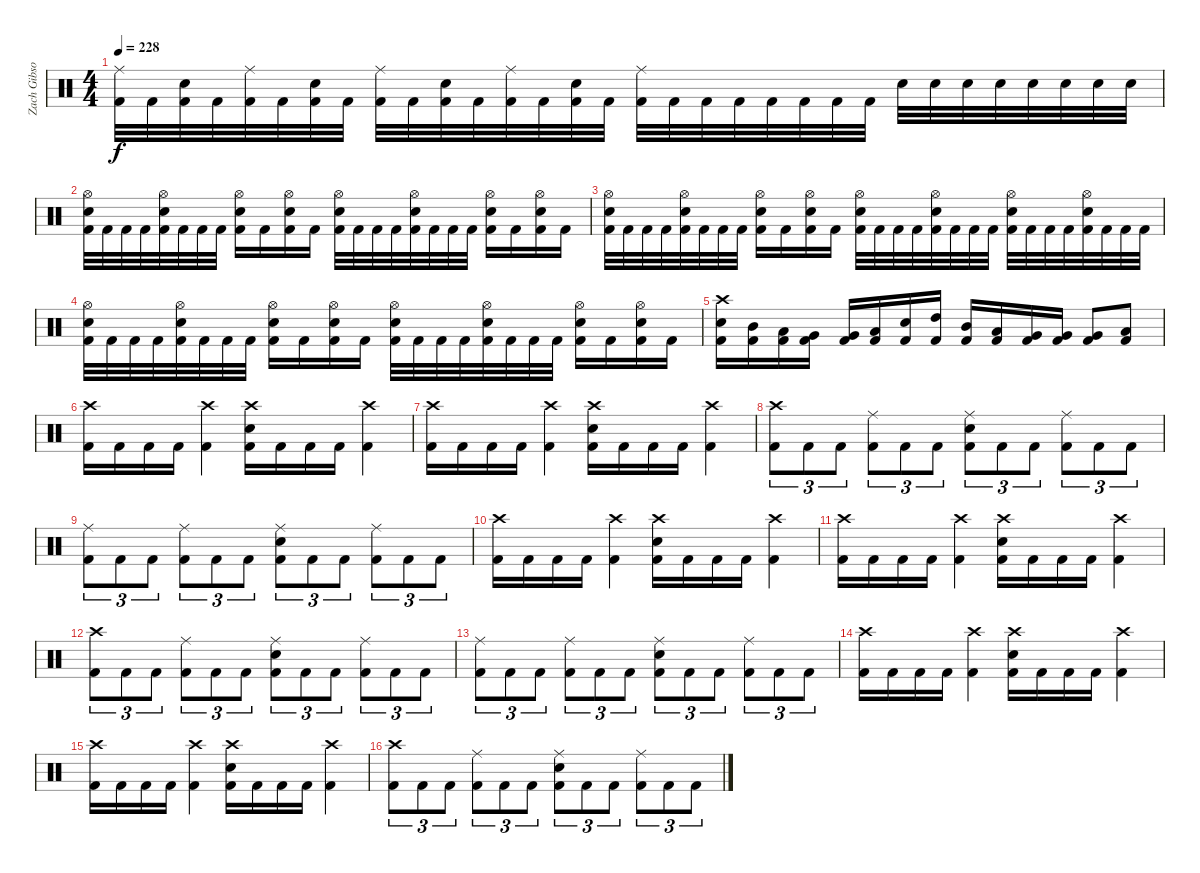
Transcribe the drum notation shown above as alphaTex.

\track ("Zach Gibson (Ex-Drums)" "Zach Gibso") {instrument percussion}
\staff {score}
\articulation defaults
\ts (4 4)
\tempo 228
\clef neutral
\ks c
("Ride (middle)" "Kick (hit) 2").32{dy f} "Kick (hit) 2".32 ("Snare (hit) 2" "Kick (hit) 2").32 "Kick (hit) 2".32 ("Ride (middle)" "Kick (hit) 2").32 "Kick (hit) 2".32 ("Snare (hit) 2" "Kick (hit) 2").32 "Kick (hit) 2".32 ("Ride (middle)" "Kick (hit) 2").32 "Kick (hit) 2".32 ("Snare (hit) 2" "Kick (hit) 2").32 "Kick (hit) 2".32 ("Ride (middle)" "Kick (hit) 2").32 "Kick (hit) 2".32 ("Snare (hit) 2" "Kick (hit) 2").32 "Kick (hit) 2".32 ("Ride (middle)" "Kick (hit) 2").32 "Kick (hit) 2".32 "Kick (hit) 2".32 "Kick (hit) 2".32 "Kick (hit) 2".32 "Kick (hit) 2".32 "Kick (hit) 2".32 "Kick (hit) 2".32 "Snare (hit) 2".32 "Snare (hit) 2".32 "Snare (hit) 2".32 "Snare (hit) 2".32 "Snare (hit) 2".32 "Snare (hit) 2".32 "Snare (hit) 2".32 "Snare (hit) 2".32 |
("Hi-Hat (open)" "Snare (hit) 2" "Kick (hit) 2").32 "Kick (hit) 2".32 "Kick (hit) 2".32 "Kick (hit) 2".32 ("Hi-Hat (open)" "Snare (hit) 2" "Kick (hit) 2").32 "Kick (hit) 2".32 "Kick (hit) 2".32 "Kick (hit) 2".32 ("Hi-Hat (open)" "Kick (hit) 2" "Snare (hit) 2").16 "Kick (hit) 2".16 ("Hi-Hat (open)" "Snare (hit) 2" "Kick (hit) 2").16 "Kick (hit) 2".16 ("Hi-Hat (open)" "Snare (hit) 2" "Kick (hit) 2").32 "Kick (hit) 2".32 "Kick (hit) 2".32 "Kick (hit) 2".32 ("Hi-Hat (open)" "Snare (hit) 2" "Kick (hit) 2").32 "Kick (hit) 2".32 "Kick (hit) 2".32 "Kick (hit) 2".32 ("Hi-Hat (open)" "Snare (hit) 2" "Kick (hit) 2").16 "Kick (hit) 2".16 ("Hi-Hat (open)" "Snare (hit) 2" "Kick (hit) 2").16 "Kick (hit) 2".16 |
("Hi-Hat (open)" "Snare (hit) 2" "Kick (hit) 2").32 "Kick (hit) 2".32 "Kick (hit) 2".32 "Kick (hit) 2".32 ("Hi-Hat (open)" "Snare (hit) 2" "Kick (hit) 2").32 "Kick (hit) 2".32 "Kick (hit) 2".32 "Kick (hit) 2".32 ("Hi-Hat (open)" "Kick (hit) 2" "Snare (hit) 2").16 "Kick (hit) 2".16 ("Hi-Hat (open)" "Snare (hit) 2" "Kick (hit) 2").16 "Kick (hit) 2".16 ("Hi-Hat (open)" "Snare (hit) 2" "Kick (hit) 2").32 "Kick (hit) 2".32 "Kick (hit) 2".32 "Kick (hit) 2".32 ("Hi-Hat (open)" "Snare (hit) 2" "Kick (hit) 2").32 "Kick (hit) 2".32 "Kick (hit) 2".32 "Kick (hit) 2".32 ("Hi-Hat (open)" "Snare (hit) 2" "Kick (hit) 2").32 "Kick (hit) 2".32 "Kick (hit) 2".32 "Kick (hit) 2".32 ("Hi-Hat (open)" "Snare (hit) 2" "Kick (hit) 2").32 "Kick (hit) 2".32 "Kick (hit) 2".32 "Kick (hit) 2".32 |
("Hi-Hat (open)" "Snare (hit) 2" "Kick (hit) 2").32 "Kick (hit) 2".32 "Kick (hit) 2".32 "Kick (hit) 2".32 ("Hi-Hat (open)" "Snare (hit) 2" "Kick (hit) 2").32 "Kick (hit) 2".32 "Kick (hit) 2".32 "Kick (hit) 2".32 ("Hi-Hat (open)" "Kick (hit) 2" "Snare (hit) 2").16 "Kick (hit) 2".16 ("Hi-Hat (open)" "Snare (hit) 2" "Kick (hit) 2").16 "Kick (hit) 2".16 ("Hi-Hat (open)" "Snare (hit) 2" "Kick (hit) 2").32 "Kick (hit) 2".32 "Kick (hit) 2".32 "Kick (hit) 2".32 ("Hi-Hat (open)" "Snare (hit) 2" "Kick (hit) 2").32 "Kick (hit) 2".32 "Kick (hit) 2".32 "Kick (hit) 2".32 ("Hi-Hat (open)" "Snare (hit) 2" "Kick (hit) 2").16 "Kick (hit) 2".16 ("Hi-Hat (open)" "Snare (hit) 2" "Kick (hit) 2").16 "Kick (hit) 2".16 |
("Crash high (hit)" "Snare (hit) 2" "Kick (hit) 2").16 ("Mid Tom (hit)" "Kick (hit) 2").16 ("Low Tom (hit)" "Kick (hit) 2").16 ("Very Low Tom (hit)" "Kick (hit) 2").16 ("Very Low Tom (hit)" "Kick (hit) 2").16 ("Low Floor Tom (hit)" "Kick (hit) 2").16 ("Snare (hit) 2" "Kick (hit) 2").16 ("High Tom (hit)" "Kick (hit) 2").16 ("Mid Tom (hit)" "Kick (hit) 2").16 ("Low Tom (hit)" "Kick (hit) 2").16 ("Very Low Tom (hit)" "Kick (hit) 2").16 ("Very Low Tom (hit)" "Kick (hit) 2").16 ("Very Low Tom (hit)" "Kick (hit) 2").8 ("Low Floor Tom (hit)" "Kick (hit) 2").8 |
("Crash high (hit)" "Kick (hit) 2").16 "Kick (hit) 2".16 "Kick (hit) 2".16 "Kick (hit) 2".16 ("Crash high (hit)" "Kick (hit) 2").4 ("Crash high (hit)" "Snare (hit) 2" "Kick (hit) 2").16 "Kick (hit) 2".16 "Kick (hit) 2".16 "Kick (hit) 2".16 ("Crash high (hit)" "Kick (hit) 2").4 |
("Crash high (hit)" "Kick (hit) 2").16 "Kick (hit) 2".16 "Kick (hit) 2".16 "Kick (hit) 2".16 ("Crash high (hit)" "Kick (hit) 2").4 ("Crash high (hit)" "Snare (hit) 2" "Kick (hit) 2").16 "Kick (hit) 2".16 "Kick (hit) 2".16 "Kick (hit) 2".16 ("Crash high (hit)" "Kick (hit) 2").4 |
("Crash high (hit)" "Kick (hit) 2").8{tu (3 2)} "Kick (hit) 2".8{tu (3 2)} "Kick (hit) 2".8{tu (3 2)} ("Ride (middle)" "Kick (hit) 2").8{tu (3 2)} "Kick (hit) 2".8{tu (3 2)} "Kick (hit) 2".8{tu (3 2)} ("Ride (middle)" "Snare (hit) 2" "Kick (hit) 2").8{tu (3 2)} "Kick (hit) 2".8{tu (3 2)} "Kick (hit) 2".8{tu (3 2)} ("Ride (middle)" "Kick (hit) 2").8{tu (3 2)} "Kick (hit) 2".8{tu (3 2)} "Kick (hit) 2".8{tu (3 2)} |
("Ride (middle)" "Kick (hit) 2").8{tu (3 2)} "Kick (hit) 2".8{tu (3 2)} "Kick (hit) 2".8{tu (3 2)} ("Ride (middle)" "Kick (hit) 2").8{tu (3 2)} "Kick (hit) 2".8{tu (3 2)} "Kick (hit) 2".8{tu (3 2)} ("Ride (middle)" "Snare (hit) 2" "Kick (hit) 2").8{tu (3 2)} "Kick (hit) 2".8{tu (3 2)} "Kick (hit) 2".8{tu (3 2)} ("Ride (middle)" "Kick (hit) 2").8{tu (3 2)} "Kick (hit) 2".8{tu (3 2)} "Kick (hit) 2".8{tu (3 2)} |
("Crash high (hit)" "Kick (hit) 2").16 "Kick (hit) 2".16 "Kick (hit) 2".16 "Kick (hit) 2".16 ("Crash high (hit)" "Kick (hit) 2").4 ("Crash high (hit)" "Snare (hit) 2" "Kick (hit) 2").16 "Kick (hit) 2".16 "Kick (hit) 2".16 "Kick (hit) 2".16 ("Crash high (hit)" "Kick (hit) 2").4 |
("Crash high (hit)" "Kick (hit) 2").16 "Kick (hit) 2".16 "Kick (hit) 2".16 "Kick (hit) 2".16 ("Crash high (hit)" "Kick (hit) 2").4 ("Crash high (hit)" "Snare (hit) 2" "Kick (hit) 2").16 "Kick (hit) 2".16 "Kick (hit) 2".16 "Kick (hit) 2".16 ("Crash high (hit)" "Kick (hit) 2").4 |
("Crash high (hit)" "Kick (hit) 2").8{tu (3 2)} "Kick (hit) 2".8{tu (3 2)} "Kick (hit) 2".8{tu (3 2)} ("Ride (middle)" "Kick (hit) 2").8{tu (3 2)} "Kick (hit) 2".8{tu (3 2)} "Kick (hit) 2".8{tu (3 2)} ("Ride (middle)" "Snare (hit) 2" "Kick (hit) 2").8{tu (3 2)} "Kick (hit) 2".8{tu (3 2)} "Kick (hit) 2".8{tu (3 2)} ("Ride (middle)" "Kick (hit) 2").8{tu (3 2)} "Kick (hit) 2".8{tu (3 2)} "Kick (hit) 2".8{tu (3 2)} |
("Ride (middle)" "Kick (hit) 2").8{tu (3 2)} "Kick (hit) 2".8{tu (3 2)} "Kick (hit) 2".8{tu (3 2)} ("Ride (middle)" "Kick (hit) 2").8{tu (3 2)} "Kick (hit) 2".8{tu (3 2)} "Kick (hit) 2".8{tu (3 2)} ("Ride (middle)" "Snare (hit) 2" "Kick (hit) 2").8{tu (3 2)} "Kick (hit) 2".8{tu (3 2)} "Kick (hit) 2".8{tu (3 2)} ("Ride (middle)" "Kick (hit) 2").8{tu (3 2)} "Kick (hit) 2".8{tu (3 2)} "Kick (hit) 2".8{tu (3 2)} |
("Crash high (hit)" "Kick (hit) 2").16 "Kick (hit) 2".16 "Kick (hit) 2".16 "Kick (hit) 2".16 ("Crash high (hit)" "Kick (hit) 2").4 ("Crash high (hit)" "Snare (hit) 2" "Kick (hit) 2").16 "Kick (hit) 2".16 "Kick (hit) 2".16 "Kick (hit) 2".16 ("Crash high (hit)" "Kick (hit) 2").4 |
("Crash high (hit)" "Kick (hit) 2").16 "Kick (hit) 2".16 "Kick (hit) 2".16 "Kick (hit) 2".16 ("Crash high (hit)" "Kick (hit) 2").4 ("Crash high (hit)" "Snare (hit) 2" "Kick (hit) 2").16 "Kick (hit) 2".16 "Kick (hit) 2".16 "Kick (hit) 2".16 ("Crash high (hit)" "Kick (hit) 2").4 |
("Crash high (hit)" "Kick (hit) 2").8{tu (3 2)} "Kick (hit) 2".8{tu (3 2)} "Kick (hit) 2".8{tu (3 2)} ("Ride (middle)" "Kick (hit) 2").8{tu (3 2)} "Kick (hit) 2".8{tu (3 2)} "Kick (hit) 2".8{tu (3 2)} ("Ride (middle)" "Snare (hit) 2" "Kick (hit) 2").8{tu (3 2)} "Kick (hit) 2".8{tu (3 2)} "Kick (hit) 2".8{tu (3 2)} ("Ride (middle)" "Kick (hit) 2").8{tu (3 2)} "Kick (hit) 2".8{tu (3 2)} "Kick (hit) 2".8{tu (3 2)}
